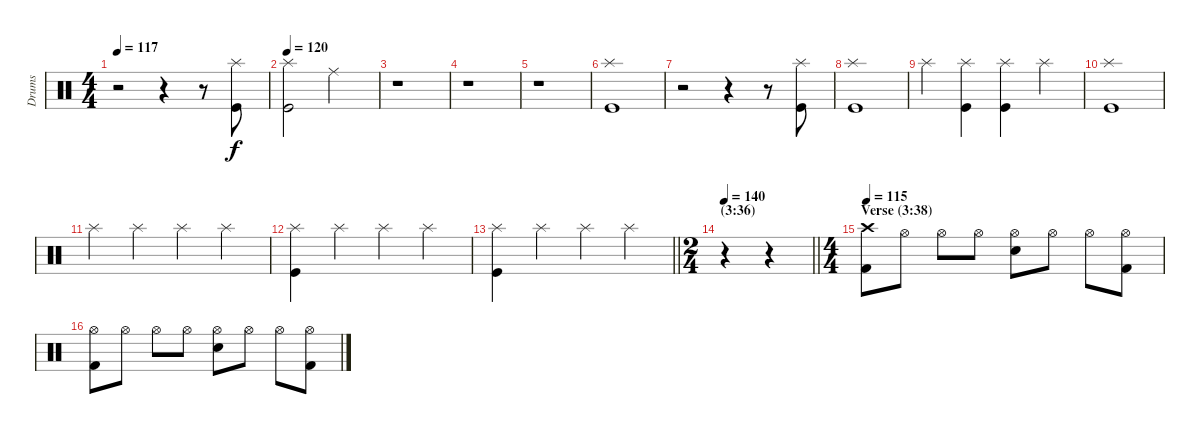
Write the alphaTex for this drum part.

\track ("Drums" "Drums") {instrument percussion}
\staff
\articulation defaults
\ts (4 4)
\tempo 117
\clef neutral
\ks c
r.2{dy f} r.4 r.8 ("Splash (hit)" "Kick (hit)").8 |
\tempo 120
("Splash (hit)" "Kick (hit)").2 "Ride (middle)".2 |
r.1 |
r.1 |
r.1 |
("Splash (hit)" "Kick (hit)").1 |
r.2 r.4 r.8 ("Splash (hit)" "Kick (hit)").8 |
("Splash (hit)" "Kick (hit)").1 |
"Splash (hit)".4 ("Splash (hit)" "Kick (hit)").4 ("Splash (hit)" "Kick (hit)").4 "Splash (hit)".4 |
("Splash (hit)" "Kick (hit)").1 |
"Splash (hit)".4 "Splash (hit)".4 "Splash (hit)".4 "Splash (hit)".4 |
("Splash (hit)" "Kick (hit)").4 "Splash (hit)".4 "Splash (hit)".4 "Splash (hit)".4 |
\barLineRight lightlight
("Splash (hit)" "Kick (hit)").4 "Splash (hit)".4 "Splash (hit)".4 "Splash (hit)".4 |
\ts (2 4)
\section ("" "(3:36)")
\tempo 140
\barLineRight lightlight
r.4 r.4 |
\ts (4 4)
\section ("" "Verse (3:38)")
\tempo 115
("Crash high (hit)" "Kick (hit) 2").8 "Hi-Hat (open)".8 "Hi-Hat (open)".8 "Hi-Hat (open)".8 ("Snare (hit) 2" "Hi-Hat (open)").8 "Hi-Hat (open)".8 "Hi-Hat (open)".8 ("Hi-Hat (open)" "Kick (hit) 2").8 |
("Hi-Hat (open)" "Kick (hit) 2").8 "Hi-Hat (open)".8 "Hi-Hat (open)".8 "Hi-Hat (open)".8 ("Snare (hit) 2" "Hi-Hat (open)").8 "Hi-Hat (open)".8 "Hi-Hat (open)".8 ("Hi-Hat (open)" "Kick (hit) 2").8
